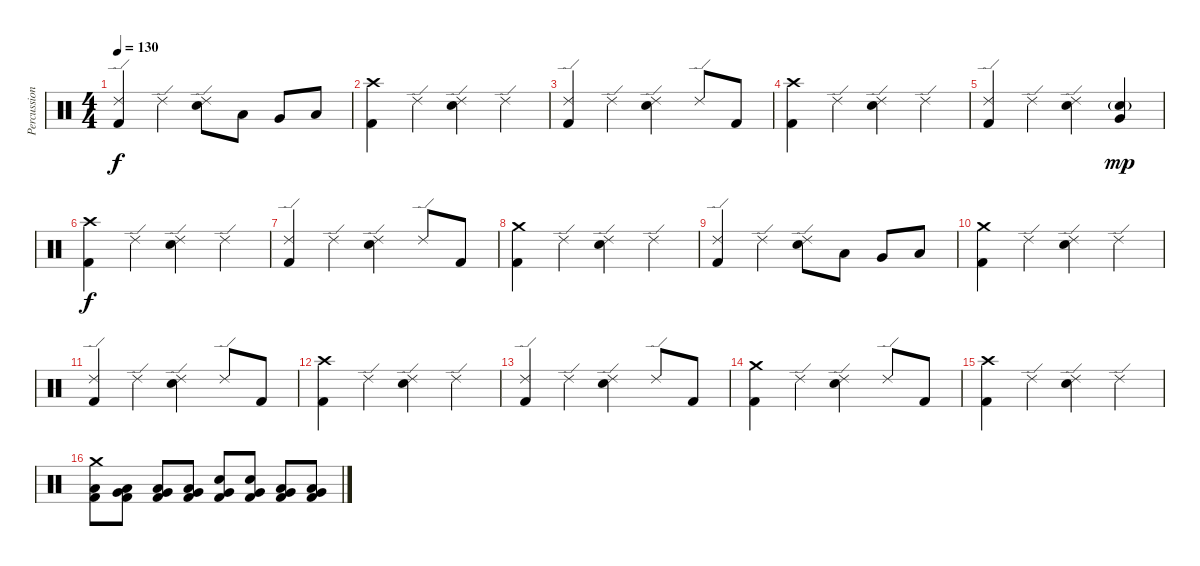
\track ("Percussion" "Percussion") {instrument percussion}
\staff {score}
\articulation defaults
\ts (4 4)
\tempo 130
\clef neutral
\ks c
("Ride (edge) 2" "Kick (hit) 2").4{dy f} "Ride (edge) 2".4 ("Ride (edge) 2" "Electric Snare (hit)").8 "Low Tom (hit)".8 "Very Low Tom (hit)".8 "Low Floor Tom (hit)".8 |
("Crash high (hit)" "Kick (hit) 2").4 "Ride (edge) 2".4 ("Ride (edge) 2" "Electric Snare (hit)").4 "Ride (edge) 2".4 |
("Ride (edge) 2" "Kick (hit) 2").4 "Ride (edge) 2".4 ("Ride (edge) 2" "Electric Snare (hit)").4 "Ride (edge) 2".8 "Kick (hit) 2".8 |
("Crash high (hit)" "Kick (hit) 2").4 "Ride (edge) 2".4 ("Ride (edge) 2" "Electric Snare (hit)").4 "Ride (edge) 2".4 |
("Ride (edge) 2" "Kick (hit) 2").4 "Ride (edge) 2".4 ("Ride (edge) 2" "Electric Snare (hit)").4 ("Electric Snare (hit)"{g} "Very Low Tom (hit)").4{dy mp} |
("Crash high (hit)" "Kick (hit) 2").4{dy f} "Ride (edge) 2".4 ("Ride (edge) 2" "Electric Snare (hit)").4 "Ride (edge) 2".4 |
("Ride (edge) 2" "Kick (hit) 2").4 "Ride (edge) 2".4 ("Ride (edge) 2" "Electric Snare (hit)").4 "Ride (edge) 2".8 "Kick (hit) 2".8 |
("Crash medium (hit)" "Kick (hit) 2").4 "Ride (edge) 2".4 ("Ride (edge) 2" "Electric Snare (hit)").4 "Ride (edge) 2".4 |
("Ride (edge) 2" "Kick (hit) 2").4 "Ride (edge) 2".4 ("Ride (edge) 2" "Electric Snare (hit)").8 "Low Tom (hit)".8 "Very Low Tom (hit)".8 "Low Floor Tom (hit)".8 |
("Crash medium (hit)" "Kick (hit) 2").4 "Ride (edge) 2".4 ("Ride (edge) 2" "Electric Snare (hit)").4 "Ride (edge) 2".4 |
("Ride (edge) 2" "Kick (hit) 2").4 "Ride (edge) 2".4 ("Ride (edge) 2" "Electric Snare (hit)").4 "Ride (edge) 2".8 "Kick (hit) 2".8 |
("Crash high (hit)" "Kick (hit) 2").4 "Ride (edge) 2".4 ("Ride (edge) 2" "Electric Snare (hit)").4 "Ride (edge) 2".4 |
("Ride (edge) 2" "Kick (hit) 2").4 "Ride (edge) 2".4 ("Ride (edge) 2" "Electric Snare (hit)").4 "Ride (edge) 2".8 "Kick (hit) 2".8 |
("Crash medium (hit)" "Kick (hit) 2").4 "Ride (edge) 2".4 ("Ride (edge) 2" "Electric Snare (hit)").4 "Ride (edge) 2".8 "Kick (hit) 2".8 |
("Crash high (hit)" "Kick (hit) 2").4 "Ride (edge) 2".4 ("Ride (edge) 2" "Electric Snare (hit)").4 "Ride (edge) 2".4 |
("Crash medium (hit)" "Low Floor Tom (hit)" "Kick (hit) 2").8 ("Low Floor Tom (hit)" "Very Low Tom (hit)" "Kick (hit) 2").8 ("Low Floor Tom (hit)" "Very Low Tom (hit)" "Kick (hit) 2").8 ("Low Floor Tom (hit)" "Very Low Tom (hit)" "Kick (hit) 2").8 ("Electric Snare (hit)" "Very Low Tom (hit)" "Kick (hit) 2").8 ("Electric Snare (hit)" "Very Low Tom (hit)" "Kick (hit) 2").8 ("Low Floor Tom (hit)" "Very Low Tom (hit)" "Kick (hit) 2").8 ("Low Floor Tom (hit)" "Very Low Tom (hit)" "Kick (hit) 2").8
